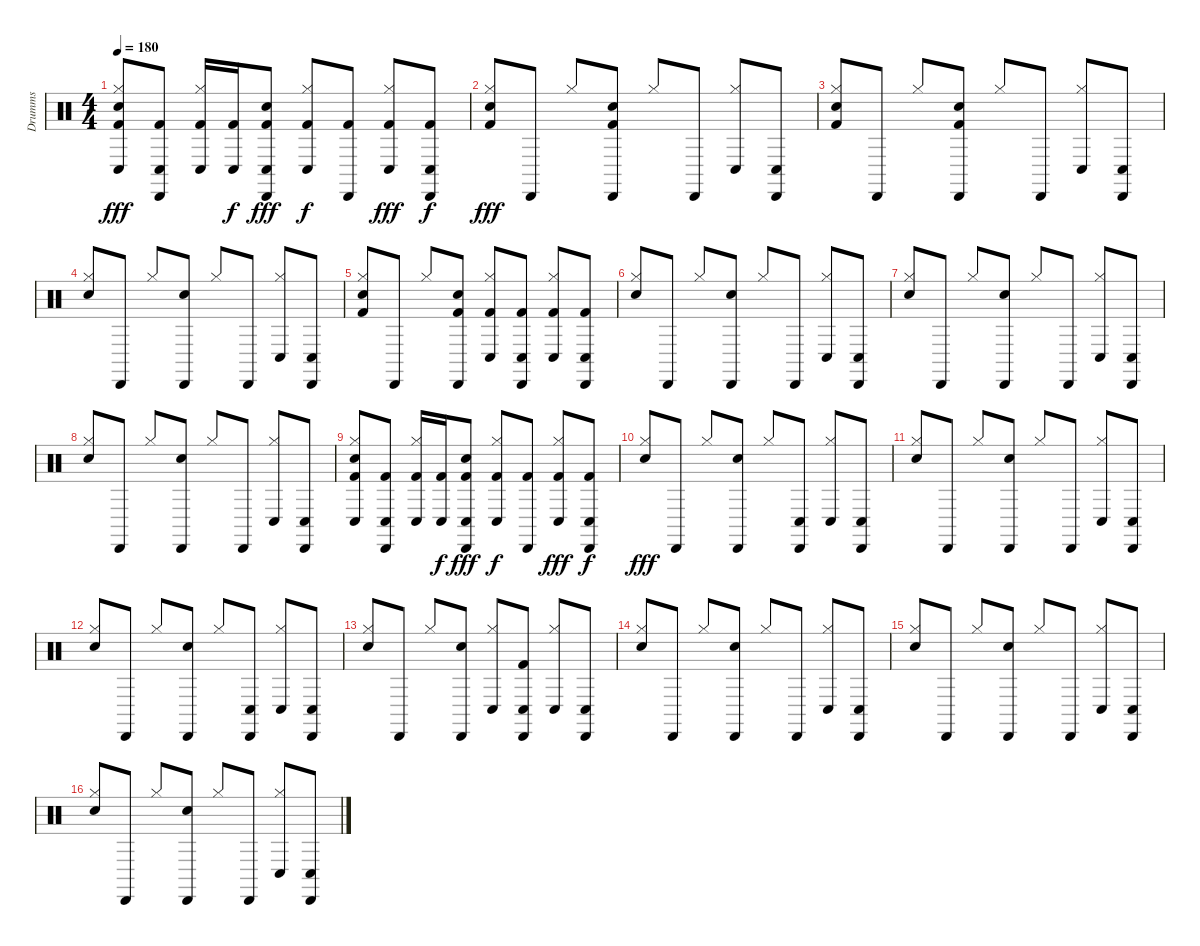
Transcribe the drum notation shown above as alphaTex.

\track ("Drumms" "Drumms") {instrument percussion}
\staff {score}
\articulation defaults
\ts (4 4)
\tempo 180
\clef neutral
\ks c
("Hi-Hat (closed)" "Metronome (bell)" "Conga low (hit)" "Kick (hit) 2").8{dy fff} ("Cabasa (hit)" "Conga low (hit)" "Kick (hit) 2").8 ("Hi-Hat (closed)" "Conga low (hit)" "Kick (hit) 2").16 ("Conga low (hit)" "Kick (hit) 2").16{dy f} ("Cabasa (hit)" "Metronome (bell)" "Conga low (hit)" "Kick (hit) 2").8{dy fff} ("Hi-Hat (closed)" "Conga low (hit)" "Kick (hit) 2").8{dy f} ("Cabasa (hit)" "Kick (hit) 2").8 ("Hi-Hat (closed)" "Conga low (hit)" "Kick (hit) 2").8{dy fff} ("Cabasa (hit)" "Conga low (hit)" "Kick (hit) 2").8{dy f} |
("Hi-Hat (closed)" "Metronome (bell)" "Kick (hit) 2").8{dy fff} "Cabasa (hit)".8 "Hi-Hat (closed)".8 ("Cabasa (hit)" "Metronome (bell)" "Kick (hit) 2").8 "Hi-Hat (closed)".8 "Cabasa (hit)".8 ("Hi-Hat (closed)" "Conga low (hit)").8 ("Cabasa (hit)" "Conga low (hit)").8 |
("Hi-Hat (closed)" "Metronome (bell)" "Kick (hit) 2").8 "Cabasa (hit)".8 "Hi-Hat (closed)".8 ("Cabasa (hit)" "Metronome (bell)" "Kick (hit) 2").8 "Hi-Hat (closed)".8 "Cabasa (hit)".8 ("Hi-Hat (closed)" "Conga low (hit)").8 ("Cabasa (hit)" "Conga low (hit)").8 |
("Hi-Hat (closed)" "Metronome (bell)").8 "Cabasa (hit)".8 "Hi-Hat (closed)".8 ("Cabasa (hit)" "Metronome (bell)").8 "Hi-Hat (closed)".8 "Cabasa (hit)".8 ("Hi-Hat (closed)" "Conga low (hit)").8 ("Cabasa (hit)" "Conga low (hit)").8 |
("Hi-Hat (closed)" "Metronome (bell)" "Kick (hit) 2").8 "Cabasa (hit)".8 "Hi-Hat (closed)".8 ("Cabasa (hit)" "Metronome (bell)" "Kick (hit) 2").8 ("Hi-Hat (closed)" "Conga low (hit)" "Kick (hit) 2").8 ("Cabasa (hit)" "Conga low (hit)" "Kick (hit) 2").8 ("Hi-Hat (closed)" "Conga low (hit)" "Kick (hit) 2").8 ("Cabasa (hit)" "Conga low (hit)" "Kick (hit) 2").8 |
("Hi-Hat (closed)" "Metronome (bell)").8 "Cabasa (hit)".8 "Hi-Hat (closed)".8 ("Cabasa (hit)" "Metronome (bell)").8 "Hi-Hat (closed)".8 "Cabasa (hit)".8 ("Hi-Hat (closed)" "Conga low (hit)").8 ("Cabasa (hit)" "Conga low (hit)").8 |
("Hi-Hat (closed)" "Metronome (bell)").8 "Cabasa (hit)".8 "Hi-Hat (closed)".8 ("Cabasa (hit)" "Metronome (bell)").8 "Hi-Hat (closed)".8 "Cabasa (hit)".8 ("Hi-Hat (closed)" "Conga low (hit)").8 ("Cabasa (hit)" "Conga low (hit)").8 |
("Hi-Hat (closed)" "Metronome (bell)").8 "Cabasa (hit)".8 "Hi-Hat (closed)".8 ("Cabasa (hit)" "Metronome (bell)").8 "Hi-Hat (closed)".8 "Cabasa (hit)".8 ("Hi-Hat (closed)" "Conga low (hit)").8 ("Cabasa (hit)" "Conga low (hit)").8 |
("Hi-Hat (closed)" "Metronome (bell)" "Conga low (hit)" "Kick (hit) 2").8 ("Cabasa (hit)" "Conga low (hit)" "Kick (hit) 2").8 ("Hi-Hat (closed)" "Conga low (hit)" "Kick (hit) 2").16 ("Conga low (hit)" "Kick (hit) 2").16{dy f} ("Cabasa (hit)" "Metronome (bell)" "Conga low (hit)" "Kick (hit) 2").8{dy fff} ("Hi-Hat (closed)" "Conga low (hit)" "Kick (hit) 2").8{dy f} ("Cabasa (hit)" "Kick (hit) 2").8 ("Hi-Hat (closed)" "Conga low (hit)" "Kick (hit) 2").8{dy fff} ("Cabasa (hit)" "Conga low (hit)" "Kick (hit) 2").8{dy f} |
("Hi-Hat (closed)" "Metronome (bell)").8{dy fff} "Cabasa (hit)".8 "Hi-Hat (closed)".8 ("Cabasa (hit)" "Metronome (bell)").8 "Hi-Hat (closed)".8 ("Cabasa (hit)" "Conga low (hit)").8 ("Hi-Hat (closed)" "Conga low (hit)").8 ("Cabasa (hit)" "Conga low (hit)").8 |
("Hi-Hat (closed)" "Metronome (bell)").8 "Cabasa (hit)".8 "Hi-Hat (closed)".8 ("Cabasa (hit)" "Metronome (bell)").8 "Hi-Hat (closed)".8 "Cabasa (hit)".8 ("Hi-Hat (closed)" "Conga low (hit)").8 ("Cabasa (hit)" "Conga low (hit)").8 |
("Hi-Hat (closed)" "Metronome (bell)").8 "Cabasa (hit)".8 "Hi-Hat (closed)".8 ("Cabasa (hit)" "Metronome (bell)").8 "Hi-Hat (closed)".8 ("Cabasa (hit)" "Conga low (hit)").8 ("Hi-Hat (closed)" "Conga low (hit)").8 ("Cabasa (hit)" "Conga low (hit)").8 |
("Hi-Hat (closed)" "Metronome (bell)").8 "Cabasa (hit)".8 "Hi-Hat (closed)".8 ("Cabasa (hit)" "Metronome (bell)").8 ("Hi-Hat (closed)" "Conga low (hit)").8 ("Cabasa (hit)" "Conga low (hit)" "Kick (hit) 2").8 ("Hi-Hat (closed)" "Conga low (hit)").8 ("Cabasa (hit)" "Conga low (hit)").8 |
("Hi-Hat (closed)" "Metronome (bell)").8 "Cabasa (hit)".8 "Hi-Hat (closed)".8 ("Cabasa (hit)" "Metronome (bell)").8 "Hi-Hat (closed)".8 "Cabasa (hit)".8 ("Hi-Hat (closed)" "Conga low (hit)").8 ("Cabasa (hit)" "Conga low (hit)").8 |
("Hi-Hat (closed)" "Metronome (bell)").8 "Cabasa (hit)".8 "Hi-Hat (closed)".8 ("Cabasa (hit)" "Metronome (bell)").8 "Hi-Hat (closed)".8 "Cabasa (hit)".8 ("Hi-Hat (closed)" "Conga low (hit)").8 ("Cabasa (hit)" "Conga low (hit)").8 |
("Hi-Hat (closed)" "Metronome (bell)").8 "Cabasa (hit)".8 "Hi-Hat (closed)".8 ("Cabasa (hit)" "Metronome (bell)").8 "Hi-Hat (closed)".8 "Cabasa (hit)".8 ("Hi-Hat (closed)" "Conga low (hit)").8 ("Cabasa (hit)" "Conga low (hit)").8
